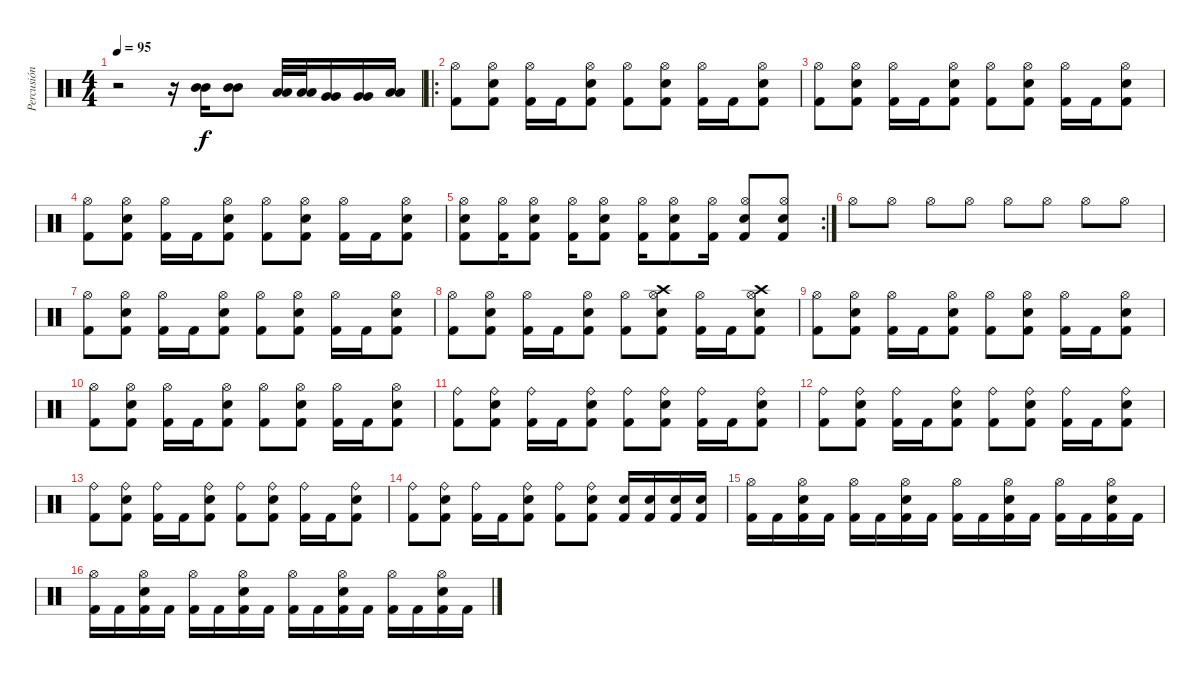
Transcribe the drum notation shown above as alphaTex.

\track ("Percusión" "Percusión") {instrument percussion}
\staff {score}
\articulation defaults
\ts (4 4)
\tempo 95
\clef neutral
\ks c
r.2{dy f} r.16 ("Mid Tom (hit)" "Mid Tom (hit)").16 ("Mid Tom (hit)" "Mid Tom (hit)").8 ("Low Tom (hit)" "Low Tom (hit)").32 ("Low Tom (hit)" "Low Tom (hit)").32 ("Very Low Tom (hit)" "Very Low Tom (hit)").16 ("Very Low Tom (hit)" "Very Low Tom (hit)").16 ("Low Floor Tom (hit)" "Low Floor Tom (hit)").16 |
\ro
("Kick (hit) 2" "Hi-Hat (open)").8 ("Kick (hit) 2" "Hi-Hat (open)" "Electric Snare (hit)").8 ("Kick (hit) 2" "Hi-Hat (open)").16 "Kick (hit) 2".16 ("Kick (hit) 2" "Hi-Hat (open)" "Electric Snare (hit)").8 ("Kick (hit) 2" "Hi-Hat (open)").8 ("Kick (hit) 2" "Hi-Hat (open)" "Electric Snare (hit)").8 ("Kick (hit) 2" "Hi-Hat (open)").16 "Kick (hit) 2".16 ("Kick (hit) 2" "Hi-Hat (open)" "Electric Snare (hit)").8 |
("Kick (hit) 2" "Hi-Hat (open)").8 ("Kick (hit) 2" "Hi-Hat (open)" "Electric Snare (hit)").8 ("Kick (hit) 2" "Hi-Hat (open)").16 "Kick (hit) 2".16 ("Kick (hit) 2" "Hi-Hat (open)" "Electric Snare (hit)").8 ("Kick (hit) 2" "Hi-Hat (open)").8 ("Kick (hit) 2" "Hi-Hat (open)" "Electric Snare (hit)").8 ("Kick (hit) 2" "Hi-Hat (open)").16 "Kick (hit) 2".16 ("Kick (hit) 2" "Hi-Hat (open)" "Electric Snare (hit)").8 |
("Kick (hit) 2" "Hi-Hat (open)").8 ("Kick (hit) 2" "Hi-Hat (open)" "Electric Snare (hit)").8 ("Kick (hit) 2" "Hi-Hat (open)").16 "Kick (hit) 2".16 ("Kick (hit) 2" "Hi-Hat (open)" "Electric Snare (hit)").8 ("Kick (hit) 2" "Hi-Hat (open)").8 ("Kick (hit) 2" "Hi-Hat (open)" "Electric Snare (hit)").8 ("Kick (hit) 2" "Hi-Hat (open)").16 "Kick (hit) 2".16 ("Kick (hit) 2" "Hi-Hat (open)" "Electric Snare (hit)").8 |
\rc 2
("Kick (hit) 2" "Hi-Hat (open)" "Electric Snare (hit)").8 ("Kick (hit) 2" "Hi-Hat (open)").16 ("Kick (hit) 2" "Hi-Hat (open)" "Electric Snare (hit)").8 ("Kick (hit) 2" "Hi-Hat (open)").16 ("Kick (hit) 2" "Hi-Hat (open)" "Electric Snare (hit)").8 ("Kick (hit) 2" "Hi-Hat (open)").16 ("Kick (hit) 2" "Hi-Hat (open)" "Electric Snare (hit)").8 ("Kick (hit) 2" "Hi-Hat (open)").16 ("Kick (hit) 2" "Hi-Hat (open)" "Electric Snare (hit)").8 ("Kick (hit) 2" "Hi-Hat (open)" "Electric Snare (hit)").8 |
"Hi-Hat (open)".8 "Hi-Hat (open)".8 "Hi-Hat (open)".8 "Hi-Hat (open)".8 "Hi-Hat (open)".8 "Hi-Hat (open)".8 "Hi-Hat (open)".8 "Hi-Hat (open)".8 |
("Kick (hit) 2" "Hi-Hat (open)").8 ("Kick (hit) 2" "Hi-Hat (open)" "Electric Snare (hit)").8 ("Kick (hit) 2" "Hi-Hat (open)").16 "Kick (hit) 2".16 ("Kick (hit) 2" "Hi-Hat (open)" "Electric Snare (hit)").8 ("Kick (hit) 2" "Hi-Hat (open)").8 ("Kick (hit) 2" "Hi-Hat (open)" "Electric Snare (hit)").8 ("Kick (hit) 2" "Hi-Hat (open)").16 "Kick (hit) 2".16 ("Kick (hit) 2" "Hi-Hat (open)" "Electric Snare (hit)").8 |
("Kick (hit) 2" "Hi-Hat (open)").8 ("Kick (hit) 2" "Hi-Hat (open)" "Electric Snare (hit)").8 ("Kick (hit) 2" "Hi-Hat (open)").16 "Kick (hit) 2".16 ("Kick (hit) 2" "Hi-Hat (open)" "Electric Snare (hit)").8 ("Kick (hit) 2" "Hi-Hat (open)").8 ("Kick (hit) 2" "Hi-Hat (open)" "Electric Snare (hit)" "Crash high (hit)").8 ("Kick (hit) 2" "Hi-Hat (open)").16 "Kick (hit) 2".16 ("Kick (hit) 2" "Hi-Hat (open)" "Electric Snare (hit)" "Crash high (hit)").8 |
("Kick (hit) 2" "Hi-Hat (open)").8 ("Kick (hit) 2" "Hi-Hat (open)" "Electric Snare (hit)").8 ("Kick (hit) 2" "Hi-Hat (open)").16 "Kick (hit) 2".16 ("Kick (hit) 2" "Hi-Hat (open)" "Electric Snare (hit)").8 ("Kick (hit) 2" "Hi-Hat (open)").8 ("Kick (hit) 2" "Hi-Hat (open)" "Electric Snare (hit)").8 ("Kick (hit) 2" "Hi-Hat (open)").16 "Kick (hit) 2".16 ("Kick (hit) 2" "Hi-Hat (open)" "Electric Snare (hit)").8 |
("Kick (hit) 2" "Hi-Hat (open)").8 ("Kick (hit) 2" "Hi-Hat (open)" "Electric Snare (hit)").8 ("Kick (hit) 2" "Hi-Hat (open)").16 "Kick (hit) 2".16 ("Kick (hit) 2" "Hi-Hat (open)" "Electric Snare (hit)").8 ("Kick (hit) 2" "Hi-Hat (open)").8 ("Kick (hit) 2" "Hi-Hat (open)" "Electric Snare (hit)").8 ("Kick (hit) 2" "Hi-Hat (open)").16 "Kick (hit) 2".16 ("Kick (hit) 2" "Hi-Hat (open)" "Electric Snare (hit)").8 |
("Kick (hit) 2" "Ride (bell)").8 ("Kick (hit) 2" "Ride (bell)" "Electric Snare (hit)").8 ("Kick (hit) 2" "Ride (bell)").16 "Kick (hit) 2".16 ("Kick (hit) 2" "Ride (bell)" "Electric Snare (hit)").8 ("Kick (hit) 2" "Ride (bell)").8 ("Kick (hit) 2" "Ride (bell)" "Electric Snare (hit)").8 ("Kick (hit) 2" "Ride (bell)").16 "Kick (hit) 2".16 ("Kick (hit) 2" "Ride (bell)" "Electric Snare (hit)").8 |
("Kick (hit) 2" "Ride (bell)").8 ("Kick (hit) 2" "Ride (bell)" "Electric Snare (hit)").8 ("Kick (hit) 2" "Ride (bell)").16 "Kick (hit) 2".16 ("Kick (hit) 2" "Ride (bell)" "Electric Snare (hit)").8 ("Kick (hit) 2" "Ride (bell)").8 ("Kick (hit) 2" "Ride (bell)" "Electric Snare (hit)").8 ("Kick (hit) 2" "Ride (bell)").16 "Kick (hit) 2".16 ("Kick (hit) 2" "Ride (bell)" "Electric Snare (hit)").8 |
("Kick (hit) 2" "Ride (bell)").8 ("Kick (hit) 2" "Ride (bell)" "Electric Snare (hit)").8 ("Kick (hit) 2" "Ride (bell)").16 "Kick (hit) 2".16 ("Kick (hit) 2" "Ride (bell)" "Electric Snare (hit)").8 ("Kick (hit) 2" "Ride (bell)").8 ("Kick (hit) 2" "Ride (bell)" "Electric Snare (hit)").8 ("Kick (hit) 2" "Ride (bell)").16 "Kick (hit) 2".16 ("Kick (hit) 2" "Ride (bell)" "Electric Snare (hit)").8 |
("Kick (hit) 2" "Ride (bell)").8 ("Kick (hit) 2" "Ride (bell)" "Electric Snare (hit)").8 ("Kick (hit) 2" "Ride (bell)").16 "Kick (hit) 2".16 ("Kick (hit) 2" "Ride (bell)" "Electric Snare (hit)").8 ("Kick (hit) 2" "Ride (bell)").8 ("Kick (hit) 2" "Ride (bell)" "Electric Snare (hit)").8 ("Kick (hit) 2" "Electric Snare (hit)").16 ("Kick (hit) 2" "Electric Snare (hit)").16 ("Kick (hit) 2" "Electric Snare (hit)").16 ("Kick (hit) 2" "Electric Snare (hit)").16 |
("Kick (hit) 2" "Hi-Hat (open)").16 "Kick (hit) 2".16 ("Kick (hit) 2" "Hi-Hat (open)" "Electric Snare (hit)").16 "Kick (hit) 2".16 ("Kick (hit) 2" "Hi-Hat (open)").16 "Kick (hit) 2".16 ("Kick (hit) 2" "Hi-Hat (open)" "Electric Snare (hit)").16 "Kick (hit) 2".16 ("Kick (hit) 2" "Hi-Hat (open)").16 "Kick (hit) 2".16 ("Kick (hit) 2" "Hi-Hat (open)" "Electric Snare (hit)").16 "Kick (hit) 2".16 ("Kick (hit) 2" "Hi-Hat (open)").16 "Kick (hit) 2".16 ("Kick (hit) 2" "Hi-Hat (open)" "Electric Snare (hit)").16 "Kick (hit) 2".16 |
("Kick (hit) 2" "Hi-Hat (open)").16 "Kick (hit) 2".16 ("Kick (hit) 2" "Hi-Hat (open)" "Electric Snare (hit)").16 "Kick (hit) 2".16 ("Kick (hit) 2" "Hi-Hat (open)").16 "Kick (hit) 2".16 ("Kick (hit) 2" "Hi-Hat (open)" "Electric Snare (hit)").16 "Kick (hit) 2".16 ("Kick (hit) 2" "Hi-Hat (open)").16 "Kick (hit) 2".16 ("Kick (hit) 2" "Hi-Hat (open)" "Electric Snare (hit)").16 "Kick (hit) 2".16 ("Kick (hit) 2" "Hi-Hat (open)").16 "Kick (hit) 2".16 ("Kick (hit) 2" "Hi-Hat (open)" "Electric Snare (hit)").16 "Kick (hit) 2".16
